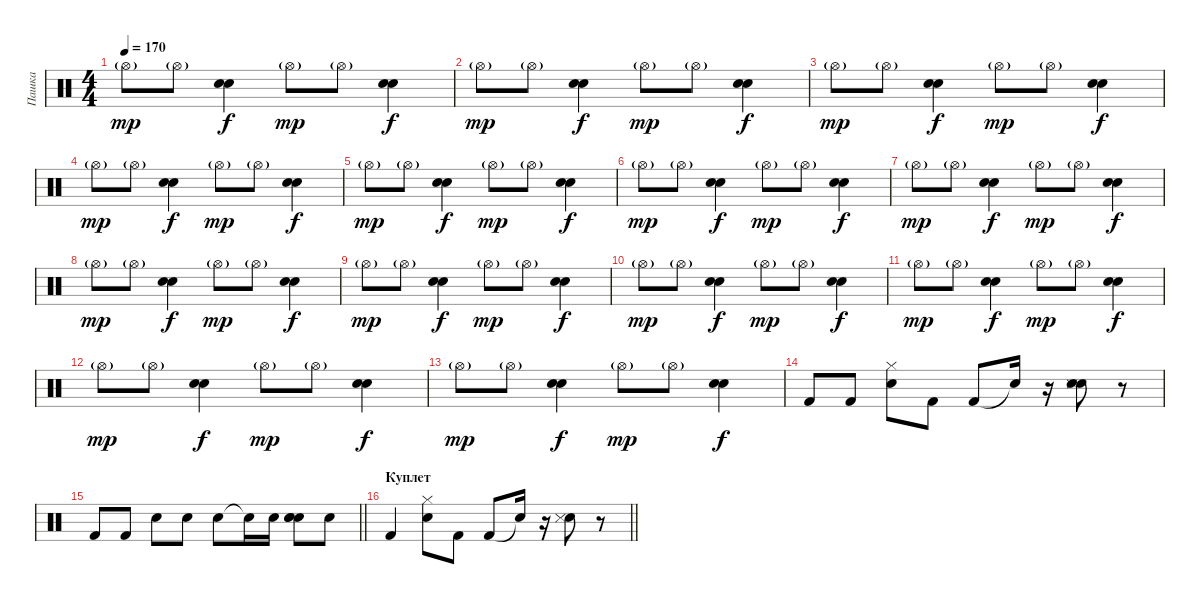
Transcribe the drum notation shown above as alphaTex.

\track ("Пашка" "Пашка") {instrument percussion}
\staff {score}
\articulation defaults
\ts (4 4)
\tempo 170
\clef neutral
\ks c "Hi-Hat (open)"{g}.8{dy mp} "Hi-Hat (open)"{g}.8
("Electric Snare (hit)" "Snare (hit) 2").4{dy f} "Hi-Hat (open)"{g}.8{dy mp} "Hi-Hat (open)"{g}.8 ("Electric Snare (hit)" "Snare (hit) 2").4{dy f} |
"Hi-Hat (open)"{g}.8{dy mp} "Hi-Hat (open)"{g}.8 ("Electric Snare (hit)" "Snare (hit) 2").4{dy f} "Hi-Hat (open)"{g}.8{dy mp} "Hi-Hat (open)"{g}.8 ("Electric Snare (hit)" "Snare (hit) 2").4{dy f} |
"Hi-Hat (open)"{g}.8{dy mp} "Hi-Hat (open)"{g}.8 ("Electric Snare (hit)" "Snare (hit) 2").4{dy f} "Hi-Hat (open)"{g}.8{dy mp} "Hi-Hat (open)"{g}.8 ("Electric Snare (hit)" "Snare (hit) 2").4{dy f} |
"Hi-Hat (open)"{g}.8{dy mp} "Hi-Hat (open)"{g}.8 ("Electric Snare (hit)" "Snare (hit) 2").4{dy f} "Hi-Hat (open)"{g}.8{dy mp} "Hi-Hat (open)"{g}.8 ("Electric Snare (hit)" "Snare (hit) 2").4{dy f} |
"Hi-Hat (open)"{g}.8{dy mp} "Hi-Hat (open)"{g}.8 ("Electric Snare (hit)" "Snare (hit) 2").4{dy f} "Hi-Hat (open)"{g}.8{dy mp} "Hi-Hat (open)"{g}.8 ("Electric Snare (hit)" "Snare (hit) 2").4{dy f} |
"Hi-Hat (open)"{g}.8{dy mp} "Hi-Hat (open)"{g}.8 ("Electric Snare (hit)" "Snare (hit) 2").4{dy f} "Hi-Hat (open)"{g}.8{dy mp} "Hi-Hat (open)"{g}.8 ("Electric Snare (hit)" "Snare (hit) 2").4{dy f} |
"Hi-Hat (open)"{g}.8{dy mp} "Hi-Hat (open)"{g}.8 ("Electric Snare (hit)" "Snare (hit) 2").4{dy f} "Hi-Hat (open)"{g}.8{dy mp} "Hi-Hat (open)"{g}.8 ("Electric Snare (hit)" "Snare (hit) 2").4{dy f} |
"Hi-Hat (open)"{g}.8{dy mp} "Hi-Hat (open)"{g}.8 ("Electric Snare (hit)" "Snare (hit) 2").4{dy f} "Hi-Hat (open)"{g}.8{dy mp} "Hi-Hat (open)"{g}.8 ("Electric Snare (hit)" "Snare (hit) 2").4{dy f} |
"Hi-Hat (open)"{g}.8{dy mp} "Hi-Hat (open)"{g}.8 ("Electric Snare (hit)" "Snare (hit) 2").4{dy f} "Hi-Hat (open)"{g}.8{dy mp} "Hi-Hat (open)"{g}.8 ("Electric Snare (hit)" "Snare (hit) 2").4{dy f} |
"Hi-Hat (open)"{g}.8{dy mp} "Hi-Hat (open)"{g}.8 ("Electric Snare (hit)" "Snare (hit) 2").4{dy f} "Hi-Hat (open)"{g}.8{dy mp} "Hi-Hat (open)"{g}.8 ("Electric Snare (hit)" "Snare (hit) 2").4{dy f} |
"Hi-Hat (open)"{g}.8{dy mp} "Hi-Hat (open)"{g}.8 ("Electric Snare (hit)" "Snare (hit) 2").4{dy f} "Hi-Hat (open)"{g}.8{dy mp} "Hi-Hat (open)"{g}.8 ("Electric Snare (hit)" "Snare (hit) 2").4{dy f} |
"Hi-Hat (open)"{g}.8{dy mp} "Hi-Hat (open)"{g}.8 ("Electric Snare (hit)" "Snare (hit) 2").4{dy f} "Hi-Hat (open)"{g}.8{dy mp} "Hi-Hat (open)"{g}.8 ("Electric Snare (hit)" "Snare (hit) 2").4{dy f} |
"Hi-Hat (open)"{g}.8{dy mp} "Hi-Hat (open)"{g}.8 ("Electric Snare (hit)" "Snare (hit) 2").4{dy f} "Hi-Hat (open)"{g}.8{dy mp} "Hi-Hat (open)"{g}.8 ("Electric Snare (hit)" "Snare (hit) 2").4{dy f} |
"Kick (hit) 2".8 "Kick (hit) 2".8 ("Hi-Hat (closed)" "Snare (hit) 2").8 "Kick (hit) 2".8 "Kick (hit) 2".8 "Snare (hit)"{t}.16 r.16 ("Metronome (bell)" "Snare (side stick) 3" "Electric Snare (hit)").8 r.8 |
\barLineRight lightlight "Kick (hit) 2".8 "Kick (hit) 2".8 "Electric Snare (hit)".8 "Electric Snare (hit)".8 "Electric Snare (hit)".8 "Snare (hit)"{t}.16 "Electric Snare (hit)".16
("Electric Snare (hit)" "Snare (hit) 2" "Electric Snare (hit)").8 "Electric Snare (hit)".8 |
\section ("" "Куплет")
\barLineRight lightlight "Kick (hit) 2".4
("Hi-Hat (closed)" "Snare (hit) 2").8 "Kick (hit) 2".8 "Kick (hit) 2".8 "Snare (hit)"{t}.16 r.16 ("Metronome (bell)" "Snare (side stick) 3").8 r.8
